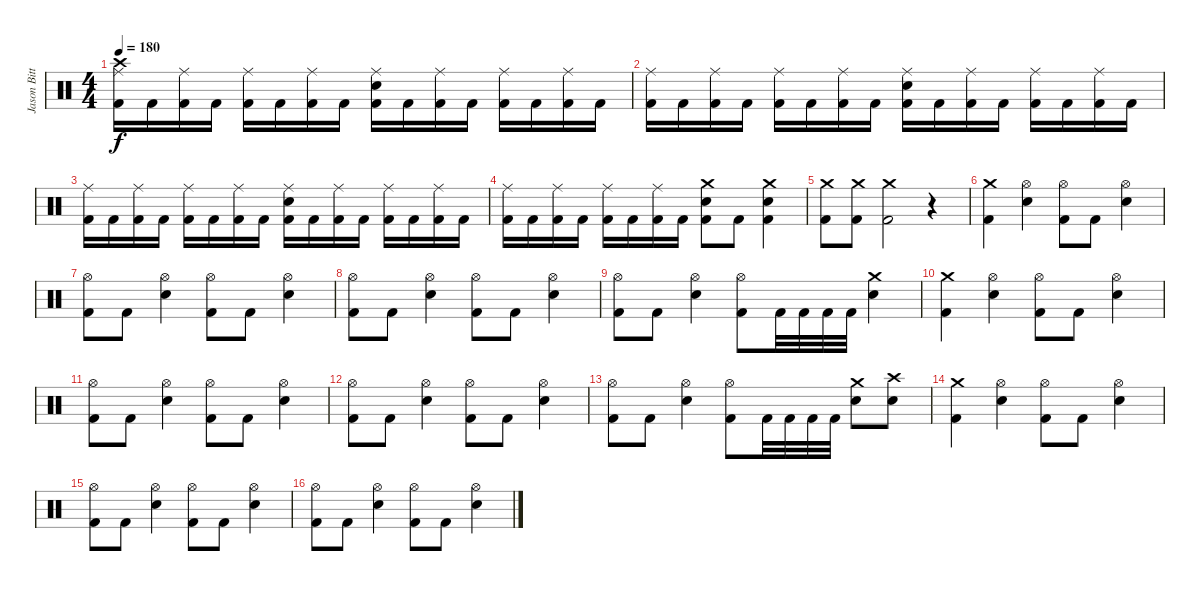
\track ("Jason Bittner" "Jason Bitt") {instrument percussion}
\staff {score}
\articulation defaults
\ts (4 4)
\tempo 180
\clef neutral
\ks c
("Kick (hit) 2" "Crash high (hit)" "Ride (middle)").16{dy f} "Kick (hit) 2".16 ("Kick (hit) 2" "Ride (middle)").16 "Kick (hit) 2".16 ("Kick (hit) 2" "Ride (middle)").16 "Kick (hit) 2".16 ("Kick (hit) 2" "Ride (middle)").16 "Kick (hit) 2".16 ("Kick (hit) 2" "Electric Snare (hit)" "Ride (middle)").16 "Kick (hit) 2".16 ("Kick (hit) 2" "Ride (middle)").16 "Kick (hit) 2".16 ("Kick (hit) 2" "Ride (middle)").16 "Kick (hit) 2".16 ("Kick (hit) 2" "Ride (middle)").16 "Kick (hit) 2".16 |
("Kick (hit) 2" "Ride (middle)").16 "Kick (hit) 2".16 ("Kick (hit) 2" "Ride (middle)").16 "Kick (hit) 2".16 ("Kick (hit) 2" "Ride (middle)").16 "Kick (hit) 2".16 ("Kick (hit) 2" "Ride (middle)").16 "Kick (hit) 2".16 ("Kick (hit) 2" "Electric Snare (hit)" "Ride (middle)").16 "Kick (hit) 2".16 ("Kick (hit) 2" "Ride (middle)").16 "Kick (hit) 2".16 ("Kick (hit) 2" "Ride (middle)").16 "Kick (hit) 2".16 ("Kick (hit) 2" "Ride (middle)").16 "Kick (hit) 2".16 |
("Kick (hit) 2" "Ride (middle)").16 "Kick (hit) 2".16 ("Kick (hit) 2" "Ride (middle)").16 "Kick (hit) 2".16 ("Kick (hit) 2" "Ride (middle)").16 "Kick (hit) 2".16 ("Kick (hit) 2" "Ride (middle)").16 "Kick (hit) 2".16 ("Kick (hit) 2" "Electric Snare (hit)" "Ride (middle)").16 "Kick (hit) 2".16 ("Kick (hit) 2" "Ride (middle)").16 "Kick (hit) 2".16 ("Kick (hit) 2" "Ride (middle)").16 "Kick (hit) 2".16 ("Kick (hit) 2" "Ride (middle)").16 "Kick (hit) 2".16 |
("Kick (hit) 2" "Ride (middle)").16 "Kick (hit) 2".16 ("Kick (hit) 2" "Ride (middle)").16 "Kick (hit) 2".16 ("Kick (hit) 2" "Ride (middle)").16 "Kick (hit) 2".16 ("Kick (hit) 2" "Ride (middle)").16 "Kick (hit) 2".16 ("Kick (hit) 2" "Electric Snare (hit)" "Crash medium (hit)").8 "Kick (hit) 2".8 ("Kick (hit) 2" "Electric Snare (hit)" "Crash medium (hit)").4 |
("Crash medium (hit)" "Kick (hit) 2").8 ("Crash medium (hit)" "Kick (hit) 2").8 ("Crash medium (hit)" "Kick (hit) 2").2 r.4 |
("Crash medium (hit)" "Kick (hit) 2").4 ("Hi-Hat (open)" "Electric Snare (hit)").4 ("Hi-Hat (open)" "Kick (hit) 2").8 "Kick (hit) 2".8 ("Hi-Hat (open)" "Electric Snare (hit)").4 |
("Hi-Hat (open)" "Kick (hit) 2").8 "Kick (hit) 2".8 ("Hi-Hat (open)" "Electric Snare (hit)").4 ("Hi-Hat (open)" "Kick (hit) 2").8 "Kick (hit) 2".8 ("Hi-Hat (open)" "Electric Snare (hit)").4 |
("Hi-Hat (open)" "Kick (hit) 2").8 "Kick (hit) 2".8 ("Hi-Hat (open)" "Electric Snare (hit)").4 ("Hi-Hat (open)" "Kick (hit) 2").8 "Kick (hit) 2".8 ("Hi-Hat (open)" "Electric Snare (hit)").4 |
("Hi-Hat (open)" "Kick (hit) 2").8 "Kick (hit) 2".8 ("Hi-Hat (open)" "Electric Snare (hit)").4 ("Hi-Hat (open)" "Kick (hit) 2").8 "Kick (hit) 2".32 "Kick (hit) 2".32 "Kick (hit) 2".32 "Kick (hit) 2".32 ("Crash medium (hit)" "Electric Snare (hit)").4 |
("Crash medium (hit)" "Kick (hit) 2").4 ("Hi-Hat (open)" "Electric Snare (hit)").4 ("Hi-Hat (open)" "Kick (hit) 2").8 "Kick (hit) 2".8 ("Hi-Hat (open)" "Electric Snare (hit)").4 |
("Hi-Hat (open)" "Kick (hit) 2").8 "Kick (hit) 2".8 ("Hi-Hat (open)" "Electric Snare (hit)").4 ("Hi-Hat (open)" "Kick (hit) 2").8 "Kick (hit) 2".8 ("Hi-Hat (open)" "Electric Snare (hit)").4 |
("Hi-Hat (open)" "Kick (hit) 2").8 "Kick (hit) 2".8 ("Hi-Hat (open)" "Electric Snare (hit)").4 ("Hi-Hat (open)" "Kick (hit) 2").8 "Kick (hit) 2".8 ("Hi-Hat (open)" "Electric Snare (hit)").4 |
("Hi-Hat (open)" "Kick (hit) 2").8 "Kick (hit) 2".8 ("Hi-Hat (open)" "Electric Snare (hit)").4 ("Hi-Hat (open)" "Kick (hit) 2").8 "Kick (hit) 2".32 "Kick (hit) 2".32 "Kick (hit) 2".32 "Kick (hit) 2".32 ("Crash medium (hit)" "Electric Snare (hit)").8 ("Crash high (hit)" "Electric Snare (hit)").8 |
("Crash medium (hit)" "Kick (hit) 2").4 ("Hi-Hat (open)" "Electric Snare (hit)").4 ("Hi-Hat (open)" "Kick (hit) 2").8 "Kick (hit) 2".8 ("Hi-Hat (open)" "Electric Snare (hit)").4 |
("Hi-Hat (open)" "Kick (hit) 2").8 "Kick (hit) 2".8 ("Hi-Hat (open)" "Electric Snare (hit)").4 ("Hi-Hat (open)" "Kick (hit) 2").8 "Kick (hit) 2".8 ("Hi-Hat (open)" "Electric Snare (hit)").4 |
("Hi-Hat (open)" "Kick (hit) 2").8 "Kick (hit) 2".8 ("Hi-Hat (open)" "Electric Snare (hit)").4 ("Hi-Hat (open)" "Kick (hit) 2").8 "Kick (hit) 2".8 ("Hi-Hat (open)" "Electric Snare (hit)").4
